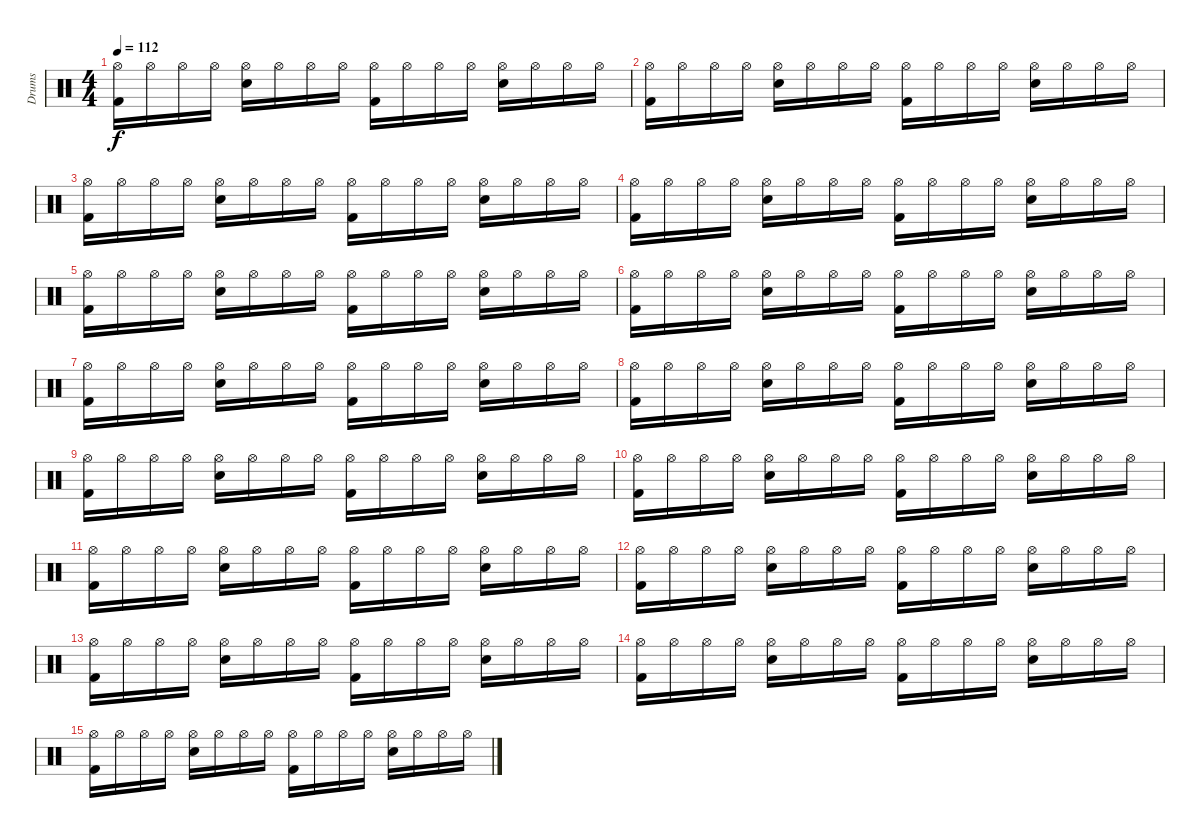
\track ("Drums" "Drums") {instrument percussion}
\staff {score}
\articulation defaults
\ts (4 4)
\tempo 112
\clef neutral
\ks c
("Kick (hit) 2" "Hi-Hat (open)").16{dy f} "Hi-Hat (open)".16 "Hi-Hat (open)".16 "Hi-Hat (open)".16 ("Snare (hit) 2" "Hi-Hat (open)").16 "Hi-Hat (open)".16 "Hi-Hat (open)".16 "Hi-Hat (open)".16 ("Kick (hit) 2" "Hi-Hat (open)").16 "Hi-Hat (open)".16 "Hi-Hat (open)".16 "Hi-Hat (open)".16 ("Snare (hit) 2" "Hi-Hat (open)").16 "Hi-Hat (open)".16 "Hi-Hat (open)".16 "Hi-Hat (open)".16 |
("Kick (hit) 2" "Hi-Hat (open)").16 "Hi-Hat (open)".16 "Hi-Hat (open)".16 "Hi-Hat (open)".16 ("Snare (hit) 2" "Hi-Hat (open)").16 "Hi-Hat (open)".16 "Hi-Hat (open)".16 "Hi-Hat (open)".16 ("Kick (hit) 2" "Hi-Hat (open)").16 "Hi-Hat (open)".16 "Hi-Hat (open)".16 "Hi-Hat (open)".16 ("Snare (hit) 2" "Hi-Hat (open)").16 "Hi-Hat (open)".16 "Hi-Hat (open)".16 "Hi-Hat (open)".16 |
("Kick (hit) 2" "Hi-Hat (open)").16 "Hi-Hat (open)".16 "Hi-Hat (open)".16 "Hi-Hat (open)".16 ("Snare (hit) 2" "Hi-Hat (open)").16 "Hi-Hat (open)".16 "Hi-Hat (open)".16 "Hi-Hat (open)".16 ("Kick (hit) 2" "Hi-Hat (open)").16 "Hi-Hat (open)".16 "Hi-Hat (open)".16 "Hi-Hat (open)".16 ("Snare (hit) 2" "Hi-Hat (open)").16 "Hi-Hat (open)".16 "Hi-Hat (open)".16 "Hi-Hat (open)".16 |
("Kick (hit) 2" "Hi-Hat (open)").16 "Hi-Hat (open)".16 "Hi-Hat (open)".16 "Hi-Hat (open)".16 ("Snare (hit) 2" "Hi-Hat (open)").16 "Hi-Hat (open)".16 "Hi-Hat (open)".16 "Hi-Hat (open)".16 ("Kick (hit) 2" "Hi-Hat (open)").16 "Hi-Hat (open)".16 "Hi-Hat (open)".16 "Hi-Hat (open)".16 ("Snare (hit) 2" "Hi-Hat (open)").16 "Hi-Hat (open)".16 "Hi-Hat (open)".16 "Hi-Hat (open)".16 |
("Kick (hit) 2" "Hi-Hat (open)").16 "Hi-Hat (open)".16 "Hi-Hat (open)".16 "Hi-Hat (open)".16 ("Snare (hit) 2" "Hi-Hat (open)").16 "Hi-Hat (open)".16 "Hi-Hat (open)".16 "Hi-Hat (open)".16 ("Kick (hit) 2" "Hi-Hat (open)").16 "Hi-Hat (open)".16 "Hi-Hat (open)".16 "Hi-Hat (open)".16 ("Snare (hit) 2" "Hi-Hat (open)").16 "Hi-Hat (open)".16 "Hi-Hat (open)".16 "Hi-Hat (open)".16 |
("Kick (hit) 2" "Hi-Hat (open)").16 "Hi-Hat (open)".16 "Hi-Hat (open)".16 "Hi-Hat (open)".16 ("Snare (hit) 2" "Hi-Hat (open)").16 "Hi-Hat (open)".16 "Hi-Hat (open)".16 "Hi-Hat (open)".16 ("Kick (hit) 2" "Hi-Hat (open)").16 "Hi-Hat (open)".16 "Hi-Hat (open)".16 "Hi-Hat (open)".16 ("Snare (hit) 2" "Hi-Hat (open)").16 "Hi-Hat (open)".16 "Hi-Hat (open)".16 "Hi-Hat (open)".16 |
("Kick (hit) 2" "Hi-Hat (open)").16 "Hi-Hat (open)".16 "Hi-Hat (open)".16 "Hi-Hat (open)".16 ("Snare (hit) 2" "Hi-Hat (open)").16 "Hi-Hat (open)".16 "Hi-Hat (open)".16 "Hi-Hat (open)".16 ("Kick (hit) 2" "Hi-Hat (open)").16 "Hi-Hat (open)".16 "Hi-Hat (open)".16 "Hi-Hat (open)".16 ("Snare (hit) 2" "Hi-Hat (open)").16 "Hi-Hat (open)".16 "Hi-Hat (open)".16 "Hi-Hat (open)".16 |
("Kick (hit) 2" "Hi-Hat (open)").16 "Hi-Hat (open)".16 "Hi-Hat (open)".16 "Hi-Hat (open)".16 ("Snare (hit) 2" "Hi-Hat (open)").16 "Hi-Hat (open)".16 "Hi-Hat (open)".16 "Hi-Hat (open)".16 ("Kick (hit) 2" "Hi-Hat (open)").16 "Hi-Hat (open)".16 "Hi-Hat (open)".16 "Hi-Hat (open)".16 ("Snare (hit) 2" "Hi-Hat (open)").16 "Hi-Hat (open)".16 "Hi-Hat (open)".16 "Hi-Hat (open)".16 |
("Kick (hit) 2" "Hi-Hat (open)").16 "Hi-Hat (open)".16 "Hi-Hat (open)".16 "Hi-Hat (open)".16 ("Snare (hit) 2" "Hi-Hat (open)").16 "Hi-Hat (open)".16 "Hi-Hat (open)".16 "Hi-Hat (open)".16 ("Kick (hit) 2" "Hi-Hat (open)").16 "Hi-Hat (open)".16 "Hi-Hat (open)".16 "Hi-Hat (open)".16 ("Snare (hit) 2" "Hi-Hat (open)").16 "Hi-Hat (open)".16 "Hi-Hat (open)".16 "Hi-Hat (open)".16 |
("Kick (hit) 2" "Hi-Hat (open)").16 "Hi-Hat (open)".16 "Hi-Hat (open)".16 "Hi-Hat (open)".16 ("Snare (hit) 2" "Hi-Hat (open)").16 "Hi-Hat (open)".16 "Hi-Hat (open)".16 "Hi-Hat (open)".16 ("Kick (hit) 2" "Hi-Hat (open)").16 "Hi-Hat (open)".16 "Hi-Hat (open)".16 "Hi-Hat (open)".16 ("Snare (hit) 2" "Hi-Hat (open)").16 "Hi-Hat (open)".16 "Hi-Hat (open)".16 "Hi-Hat (open)".16 |
("Kick (hit) 2" "Hi-Hat (open)").16 "Hi-Hat (open)".16 "Hi-Hat (open)".16 "Hi-Hat (open)".16 ("Snare (hit) 2" "Hi-Hat (open)").16 "Hi-Hat (open)".16 "Hi-Hat (open)".16 "Hi-Hat (open)".16 ("Kick (hit) 2" "Hi-Hat (open)").16 "Hi-Hat (open)".16 "Hi-Hat (open)".16 "Hi-Hat (open)".16 ("Snare (hit) 2" "Hi-Hat (open)").16 "Hi-Hat (open)".16 "Hi-Hat (open)".16 "Hi-Hat (open)".16 |
("Kick (hit) 2" "Hi-Hat (open)").16 "Hi-Hat (open)".16 "Hi-Hat (open)".16 "Hi-Hat (open)".16 ("Snare (hit) 2" "Hi-Hat (open)").16 "Hi-Hat (open)".16 "Hi-Hat (open)".16 "Hi-Hat (open)".16 ("Kick (hit) 2" "Hi-Hat (open)").16 "Hi-Hat (open)".16 "Hi-Hat (open)".16 "Hi-Hat (open)".16 ("Snare (hit) 2" "Hi-Hat (open)").16 "Hi-Hat (open)".16 "Hi-Hat (open)".16 "Hi-Hat (open)".16 |
("Kick (hit) 2" "Hi-Hat (open)").16 "Hi-Hat (open)".16 "Hi-Hat (open)".16 "Hi-Hat (open)".16 ("Snare (hit) 2" "Hi-Hat (open)").16 "Hi-Hat (open)".16 "Hi-Hat (open)".16 "Hi-Hat (open)".16 ("Kick (hit) 2" "Hi-Hat (open)").16 "Hi-Hat (open)".16 "Hi-Hat (open)".16 "Hi-Hat (open)".16 ("Snare (hit) 2" "Hi-Hat (open)").16 "Hi-Hat (open)".16 "Hi-Hat (open)".16 "Hi-Hat (open)".16 |
("Kick (hit) 2" "Hi-Hat (open)").16 "Hi-Hat (open)".16 "Hi-Hat (open)".16 "Hi-Hat (open)".16 ("Snare (hit) 2" "Hi-Hat (open)").16 "Hi-Hat (open)".16 "Hi-Hat (open)".16 "Hi-Hat (open)".16 ("Kick (hit) 2" "Hi-Hat (open)").16 "Hi-Hat (open)".16 "Hi-Hat (open)".16 "Hi-Hat (open)".16 ("Snare (hit) 2" "Hi-Hat (open)").16 "Hi-Hat (open)".16 "Hi-Hat (open)".16 "Hi-Hat (open)".16 |
("Kick (hit) 2" "Hi-Hat (open)").16 "Hi-Hat (open)".16 "Hi-Hat (open)".16 "Hi-Hat (open)".16 ("Snare (hit) 2" "Hi-Hat (open)").16 "Hi-Hat (open)".16 "Hi-Hat (open)".16 "Hi-Hat (open)".16 ("Kick (hit) 2" "Hi-Hat (open)").16 "Hi-Hat (open)".16 "Hi-Hat (open)".16 "Hi-Hat (open)".16 ("Snare (hit) 2" "Hi-Hat (open)").16 "Hi-Hat (open)".16 "Hi-Hat (open)".16 "Hi-Hat (open)".16
